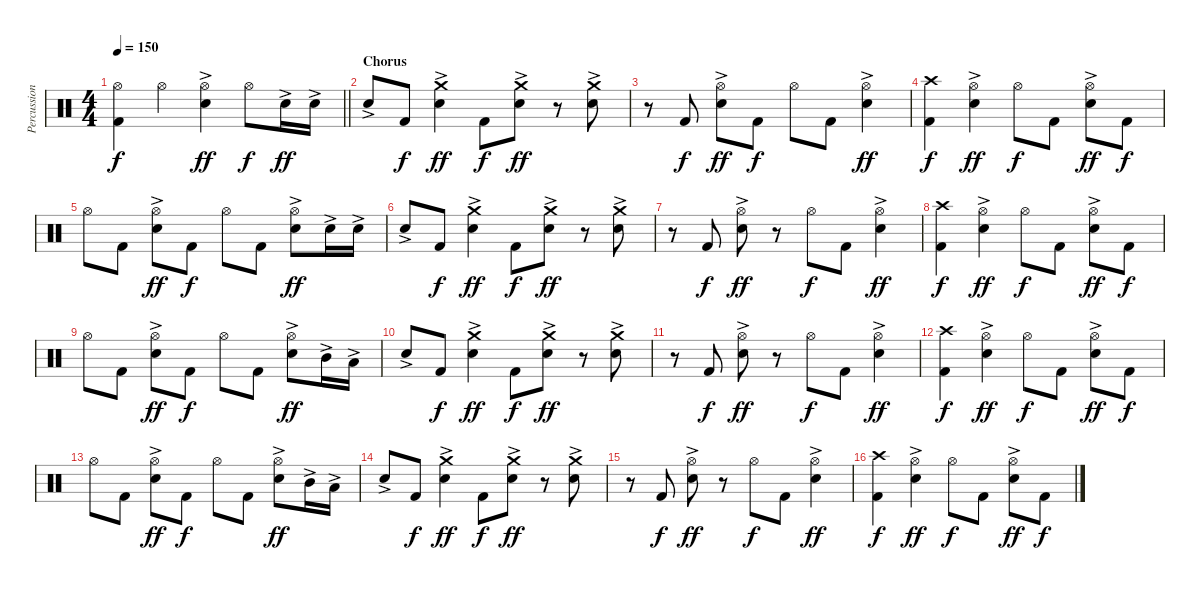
\track ("Percussion" "Percussion") {instrument percussion}
\staff {score}
\articulation defaults
\ts (4 4)
\tempo 150
\clef neutral
\barLineRight lightlight
\ks c
("Hi-Hat (open)" "Kick (hit) 2").4{dy f} "Hi-Hat (open)".4 ("Hi-Hat (open)" "Electric Snare (hit)"{ac}).4{dy ff} "Hi-Hat (open)".8{dy f} "Electric Snare (hit)"{ac}.16{dy ff} "Electric Snare (hit)"{ac}.16 |
\section ("" "Chorus")
"Electric Snare (hit)"{ac}.8 "Kick (hit) 2".8{dy f} ("Crash medium (hit)" "Electric Snare (hit)"{ac}).4{dy ff} "Kick (hit) 2".8{dy f} ("Crash medium (hit)" "Electric Snare (hit)"{ac}).8{dy ff} r.8 ("Crash medium (hit)" "Electric Snare (hit)"{ac}).8 |
r.8 "Kick (hit) 2".8{dy f} ("Hi-Hat (open)" "Electric Snare (hit)"{ac}).8{dy ff} "Kick (hit) 2".8{dy f} "Hi-Hat (open)".8 "Kick (hit) 2".8 ("Hi-Hat (open)" "Electric Snare (hit)"{ac}).4{dy ff} |
("Crash high (hit)" "Kick (hit) 2").4{dy f} ("Hi-Hat (open)" "Electric Snare (hit)"{ac}).4{dy ff} "Hi-Hat (open)".8{dy f} "Kick (hit) 2".8 ("Hi-Hat (open)" "Electric Snare (hit)"{ac}).8{dy ff} "Kick (hit) 2".8{dy f} |
"Hi-Hat (open)".8 "Kick (hit) 2".8 ("Hi-Hat (open)" "Electric Snare (hit)"{ac}).8{dy ff} "Kick (hit) 2".8{dy f} "Hi-Hat (open)".8 "Kick (hit) 2".8 ("Hi-Hat (open)" "Electric Snare (hit)"{ac}).8{dy ff} "Electric Snare (hit)"{ac}.16 "Electric Snare (hit)"{ac}.16 |
"Electric Snare (hit)"{ac}.8 "Kick (hit) 2".8{dy f} ("Crash medium (hit)" "Electric Snare (hit)"{ac}).4{dy ff} "Kick (hit) 2".8{dy f} ("Crash medium (hit)" "Electric Snare (hit)"{ac}).8{dy ff} r.8 ("Crash medium (hit)" "Electric Snare (hit)"{ac}).8 |
r.8 "Kick (hit) 2".8{dy f} ("Hi-Hat (open)" "Electric Snare (hit)"{ac}).8{dy ff} r.8 "Hi-Hat (open)".8{dy f} "Kick (hit) 2".8 ("Hi-Hat (open)" "Electric Snare (hit)"{ac}).4{dy ff} |
("Crash high (hit)" "Kick (hit) 2").4{dy f} ("Hi-Hat (open)" "Electric Snare (hit)"{ac}).4{dy ff} "Hi-Hat (open)".8{dy f} "Kick (hit) 2".8 ("Hi-Hat (open)" "Electric Snare (hit)"{ac}).8{dy ff} "Kick (hit) 2".8{dy f} |
"Hi-Hat (open)".8 "Kick (hit) 2".8 ("Hi-Hat (open)" "Electric Snare (hit)"{ac}).8{dy ff} "Kick (hit) 2".8{dy f} "Hi-Hat (open)".8 "Kick (hit) 2".8 ("Hi-Hat (open)" "Electric Snare (hit)"{ac}).8{dy ff} "Mid Tom (hit)"{ac}.16 "Low Tom (hit)"{ac}.16 |
"Electric Snare (hit)"{ac}.8 "Kick (hit) 2".8{dy f} ("Crash medium (hit)" "Electric Snare (hit)"{ac}).4{dy ff} "Kick (hit) 2".8{dy f} ("Crash medium (hit)" "Electric Snare (hit)"{ac}).8{dy ff} r.8 ("Crash medium (hit)" "Electric Snare (hit)"{ac}).8 |
r.8 "Kick (hit) 2".8{dy f} ("Hi-Hat (open)" "Electric Snare (hit)"{ac}).8{dy ff} r.8 "Hi-Hat (open)".8{dy f} "Kick (hit) 2".8 ("Hi-Hat (open)" "Electric Snare (hit)"{ac}).4{dy ff} |
("Crash high (hit)" "Kick (hit) 2").4{dy f} ("Hi-Hat (open)" "Electric Snare (hit)"{ac}).4{dy ff} "Hi-Hat (open)".8{dy f} "Kick (hit) 2".8 ("Hi-Hat (open)" "Electric Snare (hit)"{ac}).8{dy ff} "Kick (hit) 2".8{dy f} |
"Hi-Hat (open)".8 "Kick (hit) 2".8 ("Hi-Hat (open)" "Electric Snare (hit)"{ac}).8{dy ff} "Kick (hit) 2".8{dy f} "Hi-Hat (open)".8 "Kick (hit) 2".8 ("Hi-Hat (open)" "Electric Snare (hit)"{ac}).8{dy ff} "Mid Tom (hit)"{ac}.16 "Low Tom (hit)"{ac}.16 |
"Electric Snare (hit)"{ac}.8 "Kick (hit) 2".8{dy f} ("Crash medium (hit)" "Electric Snare (hit)"{ac}).4{dy ff} "Kick (hit) 2".8{dy f} ("Crash medium (hit)" "Electric Snare (hit)"{ac}).8{dy ff} r.8 ("Crash medium (hit)" "Electric Snare (hit)"{ac}).8 |
r.8 "Kick (hit) 2".8{dy f} ("Hi-Hat (open)" "Electric Snare (hit)"{ac}).8{dy ff} r.8 "Hi-Hat (open)".8{dy f} "Kick (hit) 2".8 ("Hi-Hat (open)" "Electric Snare (hit)"{ac}).4{dy ff} |
("Crash high (hit)" "Kick (hit) 2").4{dy f} ("Hi-Hat (open)" "Electric Snare (hit)"{ac}).4{dy ff} "Hi-Hat (open)".8{dy f} "Kick (hit) 2".8 ("Hi-Hat (open)" "Electric Snare (hit)"{ac}).8{dy ff} "Kick (hit) 2".8{dy f}
